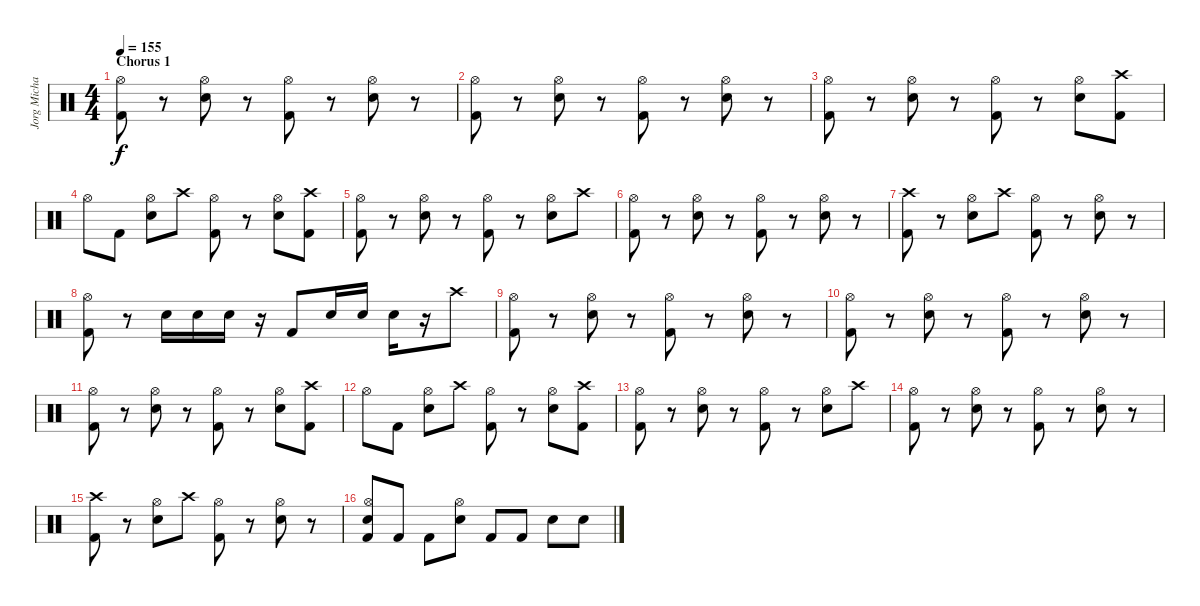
\track ("Jorg Michael - Batteria" "Jorg Micha") {instrument percussion}
\staff {score}
\articulation defaults
\ts (4 4)
\section ("" "Chorus 1")
\tempo 155
\clef neutral
\ks c
("Kick (hit) 2" "Hi-Hat (open)").8{dy f} r.8 ("Snare (hit) 2" "Hi-Hat (open)").8 r.8 ("Kick (hit) 2" "Hi-Hat (open)").8 r.8 ("Snare (hit) 2" "Hi-Hat (open)").8 r.8 |
("Kick (hit) 2" "Hi-Hat (open)").8 r.8 ("Snare (hit) 2" "Hi-Hat (open)").8 r.8 ("Kick (hit) 2" "Hi-Hat (open)").8 r.8 ("Snare (hit) 2" "Hi-Hat (open)").8 r.8 |
("Kick (hit) 2" "Hi-Hat (open)").8 r.8 ("Snare (hit) 2" "Hi-Hat (open)").8 r.8 ("Kick (hit) 2" "Hi-Hat (open)").8 r.8 ("Snare (hit) 2" "Hi-Hat (open)").8 ("Kick (hit) 2" "Crash high (hit)").8 |
"Hi-Hat (open)".8 "Kick (hit) 2".8 ("Snare (hit) 2" "Hi-Hat (open)").8 "Crash high (hit)".8 ("Kick (hit) 2" "Hi-Hat (open)").8 r.8 ("Snare (hit) 2" "Hi-Hat (open)").8 ("Kick (hit) 2" "Crash high (hit)").8 |
("Kick (hit) 2" "Hi-Hat (open)").8 r.8 ("Snare (hit) 2" "Hi-Hat (open)").8 r.8 ("Kick (hit) 2" "Hi-Hat (open)").8 r.8 ("Snare (hit) 2" "Hi-Hat (open)").8 "Crash high (hit)".8 |
("Kick (hit) 2" "Hi-Hat (open)").8 r.8 ("Snare (hit) 2" "Hi-Hat (open)").8 r.8 ("Kick (hit) 2" "Hi-Hat (open)").8 r.8 ("Snare (hit) 2" "Hi-Hat (open)").8 r.8 |
("Kick (hit) 2" "Crash high (hit)").8 r.8 ("Snare (hit) 2" "Hi-Hat (open)").8 "Crash high (hit)".8 ("Kick (hit) 2" "Hi-Hat (open)").8 r.8 ("Snare (hit) 2" "Hi-Hat (open)").8 r.8 |
("Kick (hit) 2" "Hi-Hat (open)").8 r.8 "Snare (hit) 2".16 "Snare (hit) 2".16 "Snare (hit) 2".16 r.16 "Kick (hit) 2".8 "Snare (hit) 2".16 "Snare (hit) 2".16 "Snare (hit) 2".16 r.16 "Crash high (hit)".8 |
("Kick (hit) 2" "Hi-Hat (open)").8 r.8 ("Snare (hit) 2" "Hi-Hat (open)").8 r.8 ("Kick (hit) 2" "Hi-Hat (open)").8 r.8 ("Snare (hit) 2" "Hi-Hat (open)").8 r.8 |
("Kick (hit) 2" "Hi-Hat (open)").8 r.8 ("Snare (hit) 2" "Hi-Hat (open)").8 r.8 ("Kick (hit) 2" "Hi-Hat (open)").8 r.8 ("Snare (hit) 2" "Hi-Hat (open)").8 r.8 |
("Kick (hit) 2" "Hi-Hat (open)").8 r.8 ("Snare (hit) 2" "Hi-Hat (open)").8 r.8 ("Kick (hit) 2" "Hi-Hat (open)").8 r.8 ("Snare (hit) 2" "Hi-Hat (open)").8 ("Kick (hit) 2" "Crash high (hit)").8 |
"Hi-Hat (open)".8 "Kick (hit) 2".8 ("Snare (hit) 2" "Hi-Hat (open)").8 "Crash high (hit)".8 ("Kick (hit) 2" "Hi-Hat (open)").8 r.8 ("Snare (hit) 2" "Hi-Hat (open)").8 ("Kick (hit) 2" "Crash high (hit)").8 |
("Kick (hit) 2" "Hi-Hat (open)").8 r.8 ("Snare (hit) 2" "Hi-Hat (open)").8 r.8 ("Kick (hit) 2" "Hi-Hat (open)").8 r.8 ("Snare (hit) 2" "Hi-Hat (open)").8 "Crash high (hit)".8 |
("Kick (hit) 2" "Hi-Hat (open)").8 r.8 ("Snare (hit) 2" "Hi-Hat (open)").8 r.8 ("Kick (hit) 2" "Hi-Hat (open)").8 r.8 ("Snare (hit) 2" "Hi-Hat (open)").8 r.8 |
("Kick (hit) 2" "Crash high (hit)").8 r.8 ("Snare (hit) 2" "Hi-Hat (open)").8 "Crash high (hit)".8 ("Kick (hit) 2" "Hi-Hat (open)").8 r.8 ("Snare (hit) 2" "Hi-Hat (open)").8 r.8 |
("Kick (hit) 2" "Snare (hit) 2" "Hi-Hat (open)").8 "Kick (hit) 2".8 "Kick (hit) 2".8 ("Snare (hit) 2" "Hi-Hat (open)").8 "Kick (hit) 2".8 "Kick (hit) 2".8 "Snare (hit) 2".8 "Snare (hit) 2".8
